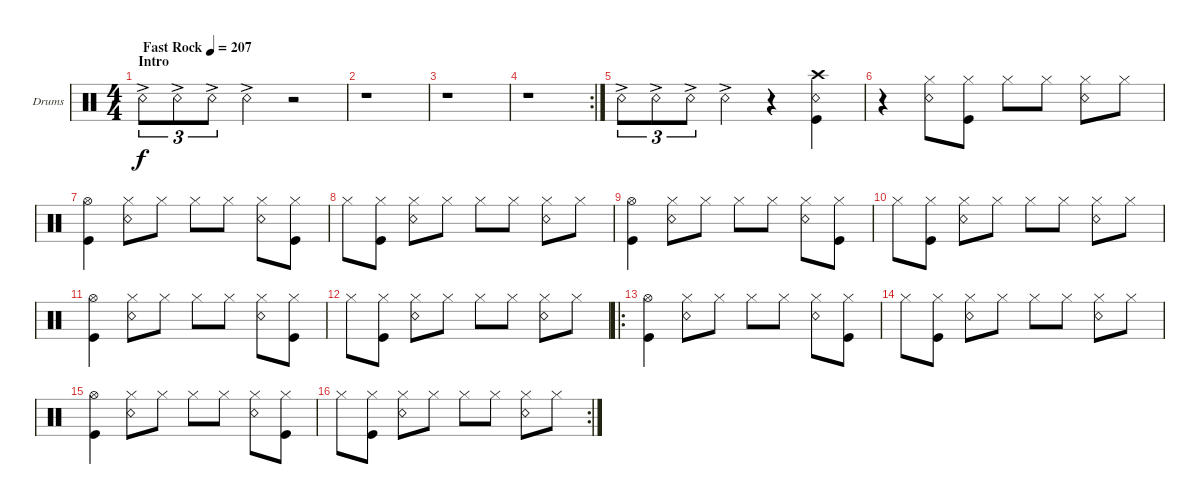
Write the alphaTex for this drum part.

\defaultSystemsLayout 4
\bracketExtendMode groupsimilarinstruments
\firstSystemTrackNameOrientation horizontal
\otherSystemsTrackNameOrientation horizontal
\track ("Drums" "Drums") {instrument percussion}
\staff {score}
\articulation defaults
\ts (4 4)
\section ("" "Intro")
\tempo (207 "Fast Rock")
\clef neutral
\ks c "Snare (rim shot)"{ac}.8{tu (3 2) dy f} "Snare (rim shot)"{ac}.8{tu (3 2)} "Snare (rim shot)"{ac}.8{tu (3 2)} "Snare (rim shot)"{ac}.4
r.2 |
r.1 |
r.1 |
\rc 2
r.1 |
"Snare (rim shot)"{ac}.8{tu (3 2)} "Snare (rim shot)"{ac}.8{tu (3 2)} "Snare (rim shot)"{ac}.8{tu (3 2)} "Snare (rim shot)"{ac}.4 r.4 ("Kick (hit)" "Crash high (hit)" "Snare (rim shot)").4 |
r.4 ("Snare (rim shot)" "Hi-Hat (closed)").8 ("Hi-Hat (closed)" "Kick (hit)").8 "Hi-Hat (closed)".8 "Hi-Hat (closed)".8 ("Snare (rim shot)" "Hi-Hat (closed)").8 "Hi-Hat (closed)".8 |
("Kick (hit)" "Hi-Hat (open)").4 ("Snare (rim shot)" "Hi-Hat (closed)").8 "Hi-Hat (closed)".8 "Hi-Hat (closed)".8 "Hi-Hat (closed)".8 ("Snare (rim shot)" "Hi-Hat (closed)").8 ("Hi-Hat (closed)" "Kick (hit)").8 |
"Hi-Hat (closed)".8 ("Kick (hit)" "Hi-Hat (closed)").8 ("Snare (rim shot)" "Hi-Hat (closed)").8 "Hi-Hat (closed)".8 "Hi-Hat (closed)".8 "Hi-Hat (closed)".8 ("Snare (rim shot)" "Hi-Hat (closed)").8 "Hi-Hat (closed)".8 |
("Kick (hit)" "Hi-Hat (open)").4 ("Snare (rim shot)" "Hi-Hat (closed)").8 "Hi-Hat (closed)".8 "Hi-Hat (closed)".8 "Hi-Hat (closed)".8 ("Snare (rim shot)" "Hi-Hat (closed)").8 ("Hi-Hat (closed)" "Kick (hit)").8 |
"Hi-Hat (closed)".8 ("Kick (hit)" "Hi-Hat (closed)").8 ("Snare (rim shot)" "Hi-Hat (closed)").8 "Hi-Hat (closed)".8 "Hi-Hat (closed)".8 "Hi-Hat (closed)".8 ("Snare (rim shot)" "Hi-Hat (closed)").8 "Hi-Hat (closed)".8 |
("Kick (hit)" "Hi-Hat (open)").4 ("Snare (rim shot)" "Hi-Hat (closed)").8 "Hi-Hat (closed)".8 "Hi-Hat (closed)".8 "Hi-Hat (closed)".8 ("Snare (rim shot)" "Hi-Hat (closed)").8 ("Hi-Hat (closed)" "Kick (hit)").8 |
"Hi-Hat (closed)".8 ("Kick (hit)" "Hi-Hat (closed)").8 ("Snare (rim shot)" "Hi-Hat (closed)").8 "Hi-Hat (closed)".8 "Hi-Hat (closed)".8 "Hi-Hat (closed)".8 ("Snare (rim shot)" "Hi-Hat (closed)").8 "Hi-Hat (closed)".8 |
\ro
("Kick (hit)" "Hi-Hat (open)").4 ("Snare (rim shot)" "Hi-Hat (closed)").8 "Hi-Hat (closed)".8 "Hi-Hat (closed)".8 "Hi-Hat (closed)".8 ("Snare (rim shot)" "Hi-Hat (closed)").8 ("Hi-Hat (closed)" "Kick (hit)").8 |
"Hi-Hat (closed)".8 ("Kick (hit)" "Hi-Hat (closed)").8 ("Snare (rim shot)" "Hi-Hat (closed)").8 "Hi-Hat (closed)".8 "Hi-Hat (closed)".8 "Hi-Hat (closed)".8 ("Snare (rim shot)" "Hi-Hat (closed)").8 "Hi-Hat (closed)".8 |
("Kick (hit)" "Hi-Hat (open)").4 ("Snare (rim shot)" "Hi-Hat (closed)").8 "Hi-Hat (closed)".8 "Hi-Hat (closed)".8 "Hi-Hat (closed)".8 ("Snare (rim shot)" "Hi-Hat (closed)").8 ("Hi-Hat (closed)" "Kick (hit)").8 |
\rc 2 "Hi-Hat (closed)".8
("Kick (hit)" "Hi-Hat (closed)").8 ("Snare (rim shot)" "Hi-Hat (closed)").8 "Hi-Hat (closed)".8 "Hi-Hat (closed)".8 "Hi-Hat (closed)".8 ("Snare (rim shot)" "Hi-Hat (closed)").8 "Hi-Hat (closed)".8
